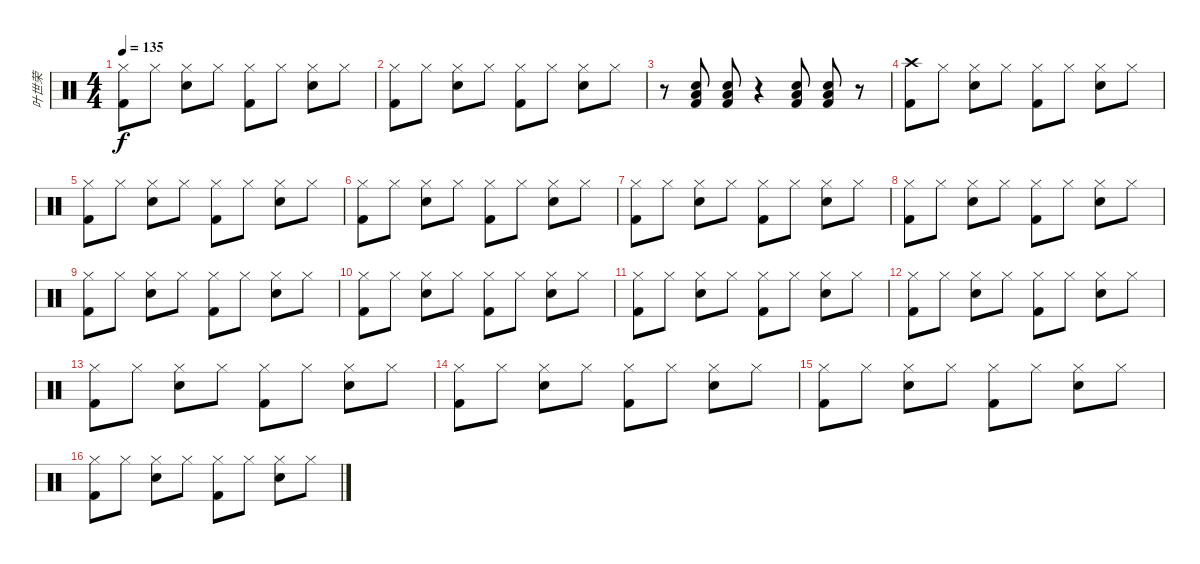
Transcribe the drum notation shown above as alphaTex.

\track ("叶世荣" "叶世荣") {instrument percussion}
\staff {score}
\articulation defaults
\ts (4 4)
\tempo 135
\clef neutral
\ks c
("Hi-Hat (closed)" "Kick (hit) 2").8{dy f} "Hi-Hat (closed)".8 ("Hi-Hat (closed)" "Electric Snare (hit)").8 "Hi-Hat (closed)".8 ("Hi-Hat (closed)" "Kick (hit) 2").8 "Hi-Hat (closed)".8 ("Hi-Hat (closed)" "Electric Snare (hit)").8 "Hi-Hat (closed)".8 |
("Hi-Hat (closed)" "Kick (hit) 2").8 "Hi-Hat (closed)".8 ("Hi-Hat (closed)" "Electric Snare (hit)").8 "Hi-Hat (closed)".8 ("Hi-Hat (closed)" "Kick (hit) 2").8 "Hi-Hat (closed)".8 ("Hi-Hat (closed)" "Electric Snare (hit)").8 "Hi-Hat (closed)".8 |
r.8 ("Low Tom (hit)" "Snare (hit) 2" "Kick (hit) 2").8 ("Low Tom (hit)" "Snare (hit) 2" "Kick (hit) 2").8 r.4 ("Low Tom (hit)" "Snare (hit) 2" "Kick (hit) 2").8 ("Low Tom (hit)" "Snare (hit) 2" "Kick (hit) 2").8 r.8 |
("Crash high (hit)" "Kick (hit) 2").8 "Hi-Hat (closed)".8 ("Hi-Hat (closed)" "Electric Snare (hit)").8 "Hi-Hat (closed)".8 ("Hi-Hat (closed)" "Kick (hit) 2").8 "Hi-Hat (closed)".8 ("Hi-Hat (closed)" "Electric Snare (hit)").8 "Hi-Hat (closed)".8 |
("Hi-Hat (closed)" "Kick (hit) 2").8 "Hi-Hat (closed)".8 ("Hi-Hat (closed)" "Electric Snare (hit)").8 "Hi-Hat (closed)".8 ("Hi-Hat (closed)" "Kick (hit) 2").8 "Hi-Hat (closed)".8 ("Hi-Hat (closed)" "Electric Snare (hit)").8 "Hi-Hat (closed)".8 |
("Hi-Hat (closed)" "Kick (hit) 2").8 "Hi-Hat (closed)".8 ("Hi-Hat (closed)" "Electric Snare (hit)").8 "Hi-Hat (closed)".8 ("Hi-Hat (closed)" "Kick (hit) 2").8 "Hi-Hat (closed)".8 ("Hi-Hat (closed)" "Electric Snare (hit)").8 "Hi-Hat (closed)".8 |
("Hi-Hat (closed)" "Kick (hit) 2").8 "Hi-Hat (closed)".8 ("Hi-Hat (closed)" "Electric Snare (hit)").8 "Hi-Hat (closed)".8 ("Hi-Hat (closed)" "Kick (hit) 2").8 "Hi-Hat (closed)".8 ("Hi-Hat (closed)" "Electric Snare (hit)").8 "Hi-Hat (closed)".8 |
("Hi-Hat (closed)" "Kick (hit) 2").8 "Hi-Hat (closed)".8 ("Hi-Hat (closed)" "Electric Snare (hit)").8 "Hi-Hat (closed)".8 ("Hi-Hat (closed)" "Kick (hit) 2").8 "Hi-Hat (closed)".8 ("Hi-Hat (closed)" "Electric Snare (hit)").8 "Hi-Hat (closed)".8 |
("Hi-Hat (closed)" "Kick (hit) 2").8 "Hi-Hat (closed)".8 ("Hi-Hat (closed)" "Electric Snare (hit)").8 "Hi-Hat (closed)".8 ("Hi-Hat (closed)" "Kick (hit) 2").8 "Hi-Hat (closed)".8 ("Hi-Hat (closed)" "Electric Snare (hit)").8 "Hi-Hat (closed)".8 |
("Hi-Hat (closed)" "Kick (hit) 2").8 "Hi-Hat (closed)".8 ("Hi-Hat (closed)" "Electric Snare (hit)").8 "Hi-Hat (closed)".8 ("Hi-Hat (closed)" "Kick (hit) 2").8 "Hi-Hat (closed)".8 ("Hi-Hat (closed)" "Electric Snare (hit)").8 "Hi-Hat (closed)".8 |
("Hi-Hat (closed)" "Kick (hit) 2").8 "Hi-Hat (closed)".8 ("Hi-Hat (closed)" "Electric Snare (hit)").8 "Hi-Hat (closed)".8 ("Hi-Hat (closed)" "Kick (hit) 2").8 "Hi-Hat (closed)".8 ("Hi-Hat (closed)" "Electric Snare (hit)").8 "Hi-Hat (closed)".8 |
("Hi-Hat (closed)" "Kick (hit) 2").8 "Hi-Hat (closed)".8 ("Hi-Hat (closed)" "Electric Snare (hit)").8 "Hi-Hat (closed)".8 ("Hi-Hat (closed)" "Kick (hit) 2").8 "Hi-Hat (closed)".8 ("Hi-Hat (closed)" "Electric Snare (hit)").8 "Hi-Hat (closed)".8 |
("Hi-Hat (closed)" "Kick (hit) 2").8 "Hi-Hat (closed)".8 ("Hi-Hat (closed)" "Electric Snare (hit)").8 "Hi-Hat (closed)".8 ("Hi-Hat (closed)" "Kick (hit) 2").8 "Hi-Hat (closed)".8 ("Hi-Hat (closed)" "Electric Snare (hit)").8 "Hi-Hat (closed)".8 |
("Hi-Hat (closed)" "Kick (hit) 2").8 "Hi-Hat (closed)".8 ("Hi-Hat (closed)" "Electric Snare (hit)").8 "Hi-Hat (closed)".8 ("Hi-Hat (closed)" "Kick (hit) 2").8 "Hi-Hat (closed)".8 ("Hi-Hat (closed)" "Electric Snare (hit)").8 "Hi-Hat (closed)".8 |
("Hi-Hat (closed)" "Kick (hit) 2").8 "Hi-Hat (closed)".8 ("Hi-Hat (closed)" "Electric Snare (hit)").8 "Hi-Hat (closed)".8 ("Hi-Hat (closed)" "Kick (hit) 2").8 "Hi-Hat (closed)".8 ("Hi-Hat (closed)" "Electric Snare (hit)").8 "Hi-Hat (closed)".8 |
("Hi-Hat (closed)" "Kick (hit) 2").8 "Hi-Hat (closed)".8 ("Hi-Hat (closed)" "Electric Snare (hit)").8 "Hi-Hat (closed)".8 ("Hi-Hat (closed)" "Kick (hit) 2").8 "Hi-Hat (closed)".8 ("Hi-Hat (closed)" "Electric Snare (hit)").8 "Hi-Hat (closed)".8
